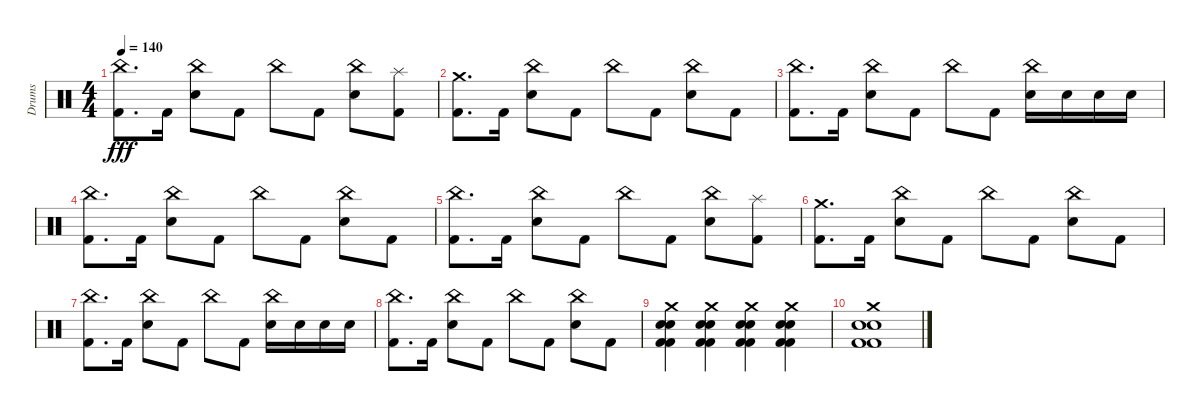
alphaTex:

\track ("Drums" "Drums") {instrument percussion}
\staff {score}
\articulation defaults
\ts (4 4)
\tempo 140
\clef neutral
\ks c
("China (hit)" "Kick (hit) 2").8{d dy fff} "Kick (hit) 2".16 ("China (hit)" "Snare (hit) 2").8 "Kick (hit) 2".8 "China (hit)".8 "Kick (hit) 2".8 ("China (hit)" "Snare (hit) 2").8 ("Splash (hit)" "Kick (hit) 2").8 |
("Crash medium (hit)" "Kick (hit) 2").8{d} "Kick (hit) 2".16 ("China (hit)" "Snare (hit) 2").8 "Kick (hit) 2".8 "China (hit)".8 "Kick (hit) 2".8 ("China (hit)" "Snare (hit) 2").8 "Kick (hit) 2".8 |
("China (hit)" "Kick (hit) 2").8{d} "Kick (hit) 2".16 ("China (hit)" "Snare (hit) 2").8 "Kick (hit) 2".8 "China (hit)".8 "Kick (hit) 2".8 ("China (hit)" "Snare (hit) 2").16 "Snare (hit) 2".16 "Snare (hit) 2".16 "Snare (hit) 2".16 |
("China (hit)" "Kick (hit) 2").8{d} "Kick (hit) 2".16 ("China (hit)" "Snare (hit) 2").8 "Kick (hit) 2".8 "China (hit)".8 "Kick (hit) 2".8 ("China (hit)" "Snare (hit) 2").8 "Kick (hit) 2".8 |
("China (hit)" "Kick (hit) 2").8{d} "Kick (hit) 2".16 ("China (hit)" "Snare (hit) 2").8 "Kick (hit) 2".8 "China (hit)".8 "Kick (hit) 2".8 ("China (hit)" "Snare (hit) 2").8 ("Splash (hit)" "Kick (hit) 2").8 |
("Crash medium (hit)" "Kick (hit) 2").8{d} "Kick (hit) 2".16 ("China (hit)" "Snare (hit) 2").8 "Kick (hit) 2".8 "China (hit)".8 "Kick (hit) 2".8 ("China (hit)" "Snare (hit) 2").8 "Kick (hit) 2".8 |
("China (hit)" "Kick (hit) 2").8{d} "Kick (hit) 2".16 ("China (hit)" "Snare (hit) 2").8 "Kick (hit) 2".8 "China (hit)".8 "Kick (hit) 2".8 ("China (hit)" "Snare (hit) 2").16 "Snare (hit) 2".16 "Snare (hit) 2".16 "Snare (hit) 2".16 |
("China (hit)" "Kick (hit) 2").8{d} "Kick (hit) 2".16 ("China (hit)" "Snare (hit) 2").8 "Kick (hit) 2".8 "China (hit)".8 "Kick (hit) 2".8 ("China (hit)" "Snare (hit) 2").8 "Kick (hit) 2".8 |
("Crash medium (hit)" "Snare (hit) 2" "Snare (hit) 2" "Kick (hit) 2" "Kick (hit) 2").4 ("Crash medium (hit)" "Snare (hit) 2" "Snare (hit) 2" "Kick (hit) 2" "Kick (hit) 2").4 ("Crash medium (hit)" "Snare (hit) 2" "Snare (hit) 2" "Kick (hit) 2" "Kick (hit) 2").4 ("Crash medium (hit)" "Snare (hit) 2" "Snare (hit) 2" "Kick (hit) 2" "Kick (hit) 2").4 |
("Crash medium (hit)" "Snare (hit) 2" "Snare (hit) 2" "Kick (hit) 2" "Kick (hit) 2").1
